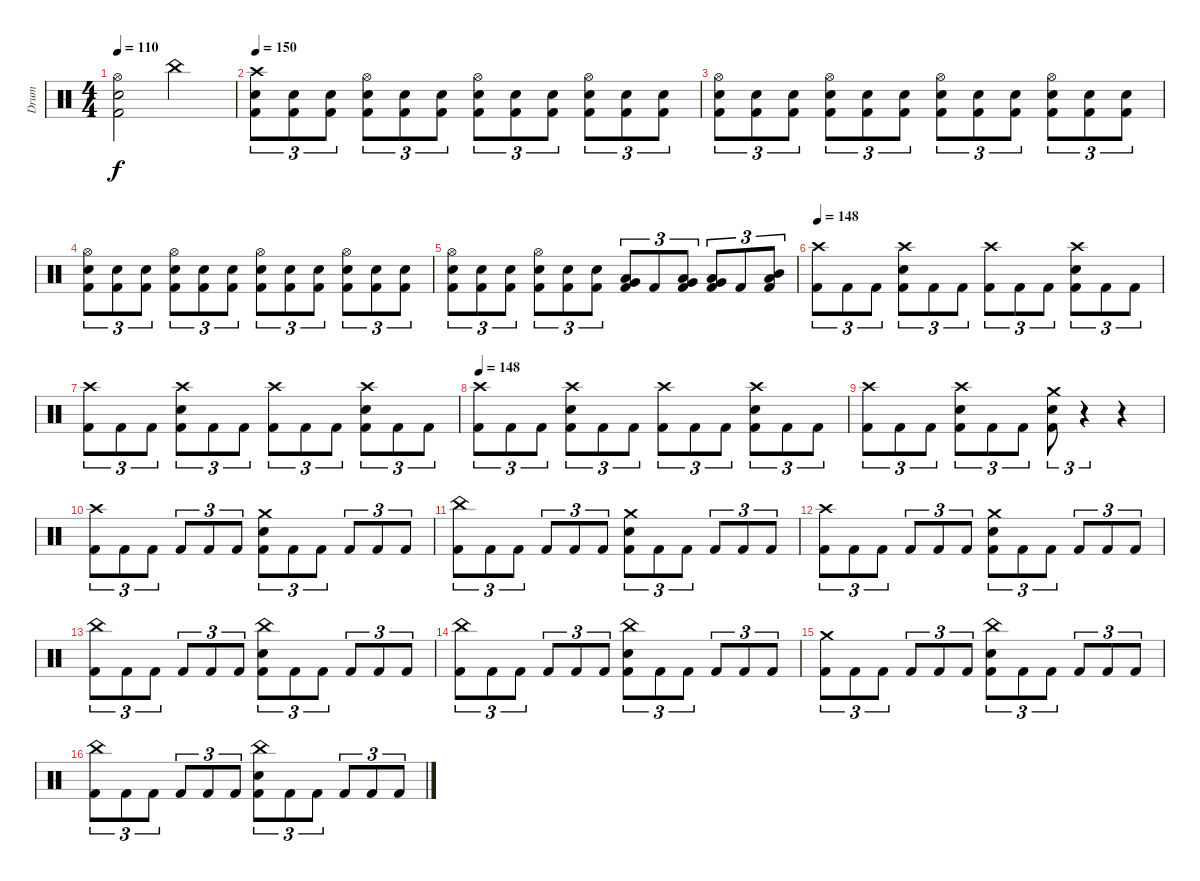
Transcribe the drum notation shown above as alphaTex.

\track ("Drum" "Drum") {instrument percussion}
\staff {score}
\articulation defaults
\ts (4 4)
\tempo 110
\clef neutral
\ks c
("Hi-Hat (open)" "Electric Snare (hit)" "Kick (hit) 2").2{dy f} "China (hit)".2 |
\tempo 150
("Crash high (hit)" "Electric Snare (hit)" "Kick (hit) 2").8{tu (3 2)} ("Electric Snare (hit)" "Kick (hit) 2").8{tu (3 2)} ("Electric Snare (hit)" "Kick (hit) 2").8{tu (3 2)} ("Hi-Hat (open)" "Electric Snare (hit)" "Kick (hit) 2").8{tu (3 2)} ("Electric Snare (hit)" "Kick (hit) 2").8{tu (3 2)} ("Electric Snare (hit)" "Kick (hit) 2").8{tu (3 2)} ("Hi-Hat (open)" "Electric Snare (hit)" "Kick (hit) 2").8{tu (3 2)} ("Electric Snare (hit)" "Kick (hit) 2").8{tu (3 2)} ("Electric Snare (hit)" "Kick (hit) 2").8{tu (3 2)} ("Hi-Hat (open)" "Electric Snare (hit)" "Kick (hit) 2").8{tu (3 2)} ("Electric Snare (hit)" "Kick (hit) 2").8{tu (3 2)} ("Electric Snare (hit)" "Kick (hit) 2").8{tu (3 2)} |
("Hi-Hat (open)" "Electric Snare (hit)" "Kick (hit) 2").8{tu (3 2)} ("Electric Snare (hit)" "Kick (hit) 2").8{tu (3 2)} ("Electric Snare (hit)" "Kick (hit) 2").8{tu (3 2)} ("Hi-Hat (open)" "Electric Snare (hit)" "Kick (hit) 2").8{tu (3 2)} ("Electric Snare (hit)" "Kick (hit) 2").8{tu (3 2)} ("Electric Snare (hit)" "Kick (hit) 2").8{tu (3 2)} ("Hi-Hat (open)" "Electric Snare (hit)" "Kick (hit) 2").8{tu (3 2)} ("Electric Snare (hit)" "Kick (hit) 2").8{tu (3 2)} ("Electric Snare (hit)" "Kick (hit) 2").8{tu (3 2)} ("Hi-Hat (open)" "Electric Snare (hit)" "Kick (hit) 2").8{tu (3 2)} ("Electric Snare (hit)" "Kick (hit) 2").8{tu (3 2)} ("Electric Snare (hit)" "Kick (hit) 2").8{tu (3 2)} |
("Hi-Hat (open)" "Electric Snare (hit)" "Kick (hit) 2").8{tu (3 2)} ("Electric Snare (hit)" "Kick (hit) 2").8{tu (3 2)} ("Electric Snare (hit)" "Kick (hit) 2").8{tu (3 2)} ("Hi-Hat (open)" "Electric Snare (hit)" "Kick (hit) 2").8{tu (3 2)} ("Electric Snare (hit)" "Kick (hit) 2").8{tu (3 2)} ("Electric Snare (hit)" "Kick (hit) 2").8{tu (3 2)} ("Hi-Hat (open)" "Electric Snare (hit)" "Kick (hit) 2").8{tu (3 2)} ("Electric Snare (hit)" "Kick (hit) 2").8{tu (3 2)} ("Electric Snare (hit)" "Kick (hit) 2").8{tu (3 2)} ("Hi-Hat (open)" "Electric Snare (hit)" "Kick (hit) 2").8{tu (3 2)} ("Electric Snare (hit)" "Kick (hit) 2").8{tu (3 2)} ("Electric Snare (hit)" "Kick (hit) 2").8{tu (3 2)} |
("Hi-Hat (open)" "Electric Snare (hit)" "Kick (hit) 2").8{tu (3 2)} ("Electric Snare (hit)" "Kick (hit) 2").8{tu (3 2)} ("Electric Snare (hit)" "Kick (hit) 2").8{tu (3 2)} ("Hi-Hat (open)" "Electric Snare (hit)" "Kick (hit) 2").8{tu (3 2)} ("Electric Snare (hit)" "Kick (hit) 2").8{tu (3 2)} ("Electric Snare (hit)" "Kick (hit) 2").8{tu (3 2)} ("Low Tom (hit)" "Very Low Tom (hit)" "Kick (hit) 2").8{tu (3 2)} "Kick (hit) 2".8{tu (3 2)} ("Very Low Tom (hit)" "Low Floor Tom (hit)" "Kick (hit) 2").8{tu (3 2)} ("Very Low Tom (hit)" "Low Floor Tom (hit)" "Kick (hit) 2").8{tu (3 2)} "Kick (hit) 2".8{tu (3 2)} ("Low Floor Tom (hit)" "Mid Tom (hit)" "Kick (hit) 2").8{tu (3 2)} |
\tempo 148
("Crash high (hit)" "Kick (hit) 2").8{tu (3 2)} "Kick (hit) 2".8{tu (3 2)} "Kick (hit) 2".8{tu (3 2)} ("Crash high (hit)" "Electric Snare (hit)" "Kick (hit) 2").8{tu (3 2)} "Kick (hit) 2".8{tu (3 2)} "Kick (hit) 2".8{tu (3 2)} ("Crash high (hit)" "Kick (hit) 2").8{tu (3 2)} "Kick (hit) 2".8{tu (3 2)} "Kick (hit) 2".8{tu (3 2)} ("Crash high (hit)" "Electric Snare (hit)" "Kick (hit) 2").8{tu (3 2)} "Kick (hit) 2".8{tu (3 2)} "Kick (hit) 2".8{tu (3 2)} |
("Crash high (hit)" "Kick (hit) 2").8{tu (3 2)} "Kick (hit) 2".8{tu (3 2)} "Kick (hit) 2".8{tu (3 2)} ("Crash high (hit)" "Electric Snare (hit)" "Kick (hit) 2").8{tu (3 2)} "Kick (hit) 2".8{tu (3 2)} "Kick (hit) 2".8{tu (3 2)} ("Crash high (hit)" "Kick (hit) 2").8{tu (3 2)} "Kick (hit) 2".8{tu (3 2)} "Kick (hit) 2".8{tu (3 2)} ("Crash high (hit)" "Electric Snare (hit)" "Kick (hit) 2").8{tu (3 2)} "Kick (hit) 2".8{tu (3 2)} "Kick (hit) 2".8{tu (3 2)} |
\tempo 148
("Crash high (hit)" "Kick (hit) 2").8{tu (3 2)} "Kick (hit) 2".8{tu (3 2)} "Kick (hit) 2".8{tu (3 2)} ("Crash high (hit)" "Electric Snare (hit)" "Kick (hit) 2").8{tu (3 2)} "Kick (hit) 2".8{tu (3 2)} "Kick (hit) 2".8{tu (3 2)} ("Crash high (hit)" "Kick (hit) 2").8{tu (3 2)} "Kick (hit) 2".8{tu (3 2)} "Kick (hit) 2".8{tu (3 2)} ("Crash high (hit)" "Electric Snare (hit)" "Kick (hit) 2").8{tu (3 2)} "Kick (hit) 2".8{tu (3 2)} "Kick (hit) 2".8{tu (3 2)} |
("Crash high (hit)" "Kick (hit) 2").8{tu (3 2)} "Kick (hit) 2".8{tu (3 2)} "Kick (hit) 2".8{tu (3 2)} ("Crash high (hit)" "Electric Snare (hit)" "Kick (hit) 2").8{tu (3 2)} "Kick (hit) 2".8{tu (3 2)} "Kick (hit) 2".8{tu (3 2)} ("Crash medium (hit)" "Electric Snare (hit)" "Kick (hit) 2").8{tu (3 2)} r.4{tu (3 2) volume 0} r.4 |
("Crash high (hit)" "Kick (hit) 2").8{tu (3 2) volume 16} "Kick (hit) 2".8{tu (3 2)} "Kick (hit) 2".8{tu (3 2)} "Kick (hit) 2".8{tu (3 2)} "Kick (hit) 2".8{tu (3 2)} "Kick (hit) 2".8{tu (3 2)} ("Crash medium (hit)" "Electric Snare (hit)" "Kick (hit) 2").8{tu (3 2)} "Kick (hit) 2".8{tu (3 2)} "Kick (hit) 2".8{tu (3 2)} "Kick (hit) 2".8{tu (3 2)} "Kick (hit) 2".8{tu (3 2)} "Kick (hit) 2".8{tu (3 2)} |
("China (hit)" "Kick (hit) 2").8{tu (3 2)} "Kick (hit) 2".8{tu (3 2)} "Kick (hit) 2".8{tu (3 2)} "Kick (hit) 2".8{tu (3 2)} "Kick (hit) 2".8{tu (3 2)} "Kick (hit) 2".8{tu (3 2)} ("Crash medium (hit)" "Electric Snare (hit)" "Kick (hit) 2").8{tu (3 2)} "Kick (hit) 2".8{tu (3 2)} "Kick (hit) 2".8{tu (3 2)} "Kick (hit) 2".8{tu (3 2)} "Kick (hit) 2".8{tu (3 2)} "Kick (hit) 2".8{tu (3 2)} |
("Crash high (hit)" "Kick (hit) 2").8{tu (3 2)} "Kick (hit) 2".8{tu (3 2)} "Kick (hit) 2".8{tu (3 2)} "Kick (hit) 2".8{tu (3 2)} "Kick (hit) 2".8{tu (3 2)} "Kick (hit) 2".8{tu (3 2)} ("Crash medium (hit)" "Electric Snare (hit)" "Kick (hit) 2").8{tu (3 2)} "Kick (hit) 2".8{tu (3 2)} "Kick (hit) 2".8{tu (3 2)} "Kick (hit) 2".8{tu (3 2)} "Kick (hit) 2".8{tu (3 2)} "Kick (hit) 2".8{tu (3 2)} |
("China (hit)" "Kick (hit) 2").8{tu (3 2)} "Kick (hit) 2".8{tu (3 2)} "Kick (hit) 2".8{tu (3 2)} "Kick (hit) 2".8{tu (3 2)} "Kick (hit) 2".8{tu (3 2)} "Kick (hit) 2".8{tu (3 2)} ("China (hit)" "Electric Snare (hit)" "Kick (hit) 2").8{tu (3 2)} "Kick (hit) 2".8{tu (3 2)} "Kick (hit) 2".8{tu (3 2)} "Kick (hit) 2".8{tu (3 2)} "Kick (hit) 2".8{tu (3 2)} "Kick (hit) 2".8{tu (3 2)} |
("China (hit)" "Kick (hit) 2").8{tu (3 2)} "Kick (hit) 2".8{tu (3 2)} "Kick (hit) 2".8{tu (3 2)} "Kick (hit) 2".8{tu (3 2)} "Kick (hit) 2".8{tu (3 2)} "Kick (hit) 2".8{tu (3 2)} ("China (hit)" "Electric Snare (hit)" "Kick (hit) 2").8{tu (3 2)} "Kick (hit) 2".8{tu (3 2)} "Kick (hit) 2".8{tu (3 2)} "Kick (hit) 2".8{tu (3 2)} "Kick (hit) 2".8{tu (3 2)} "Kick (hit) 2".8{tu (3 2)} |
("Crash medium (hit)" "Kick (hit) 2").8{tu (3 2)} "Kick (hit) 2".8{tu (3 2)} "Kick (hit) 2".8{tu (3 2)} "Kick (hit) 2".8{tu (3 2)} "Kick (hit) 2".8{tu (3 2)} "Kick (hit) 2".8{tu (3 2)} ("China (hit)" "Electric Snare (hit)" "Kick (hit) 2").8{tu (3 2)} "Kick (hit) 2".8{tu (3 2)} "Kick (hit) 2".8{tu (3 2)} "Kick (hit) 2".8{tu (3 2)} "Kick (hit) 2".8{tu (3 2)} "Kick (hit) 2".8{tu (3 2)} |
("China (hit)" "Kick (hit) 2").8{tu (3 2)} "Kick (hit) 2".8{tu (3 2)} "Kick (hit) 2".8{tu (3 2)} "Kick (hit) 2".8{tu (3 2)} "Kick (hit) 2".8{tu (3 2)} "Kick (hit) 2".8{tu (3 2)} ("China (hit)" "Electric Snare (hit)" "Kick (hit) 2").8{tu (3 2)} "Kick (hit) 2".8{tu (3 2)} "Kick (hit) 2".8{tu (3 2)} "Kick (hit) 2".8{tu (3 2)} "Kick (hit) 2".8{tu (3 2)} "Kick (hit) 2".8{tu (3 2)}
